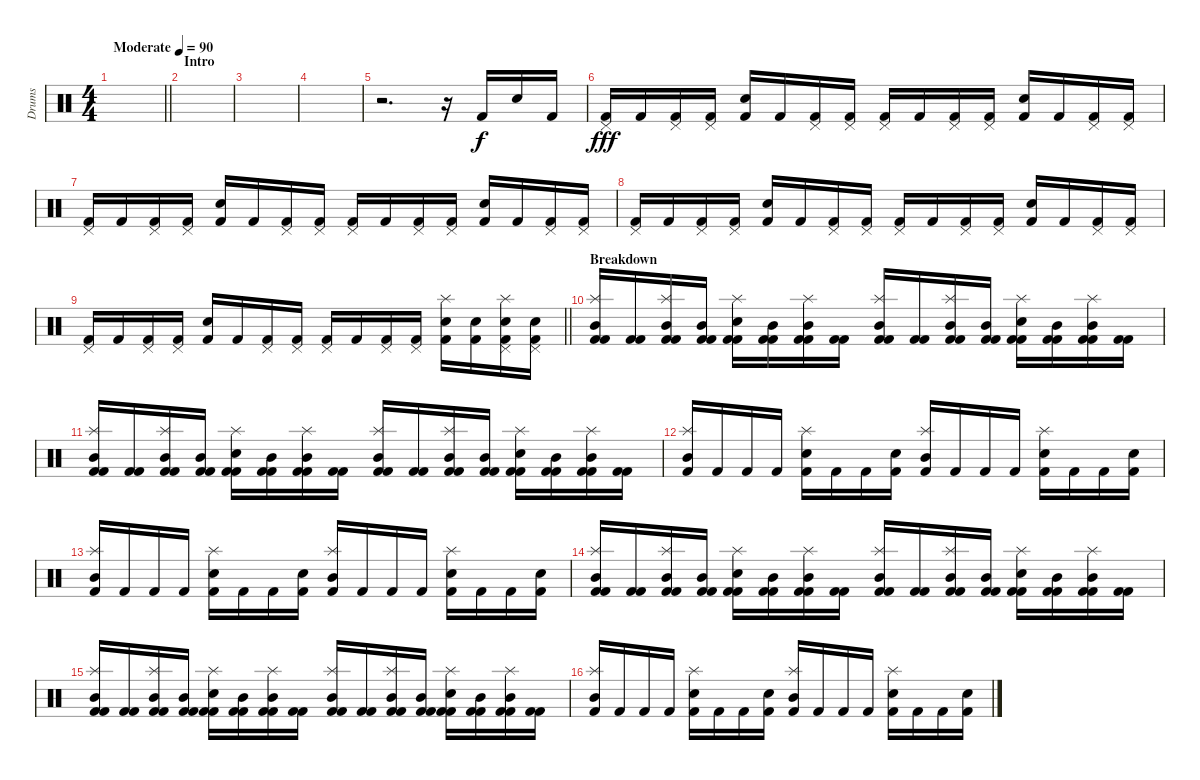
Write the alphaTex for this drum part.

\track ("Drums" "Drums") {instrument percussion}
\staff {score}
\articulation defaults
\ts (4 4)
\tempo (90 "Moderate")
\clef neutral
\barLineRight lightlight
\ks c
|
\section ("" "Intro")
|
|
|
r.2{d} r.16 "Kick (hit) 2".16 "Electric Snare (hit)".16 "Kick (hit) 2".16 |
("Pedal Hi-Hat (hit)" "Kick (hit) 2").16{dy fff} "Kick (hit) 2".16 ("Pedal Hi-Hat (hit)" "Kick (hit) 2").16 ("Pedal Hi-Hat (hit)" "Kick (hit) 2").16 ("Electric Snare (hit)" "Kick (hit) 2").16 "Kick (hit) 2".16 ("Pedal Hi-Hat (hit)" "Kick (hit) 2").16 ("Pedal Hi-Hat (hit)" "Kick (hit) 2").16 ("Pedal Hi-Hat (hit)" "Kick (hit) 2").16 "Kick (hit) 2".16 ("Pedal Hi-Hat (hit)" "Kick (hit) 2").16 ("Pedal Hi-Hat (hit)" "Kick (hit) 2").16 ("Electric Snare (hit)" "Kick (hit) 2").16 "Kick (hit) 2".16 ("Pedal Hi-Hat (hit)" "Kick (hit) 2").16 ("Pedal Hi-Hat (hit)" "Kick (hit) 2").16 |
("Pedal Hi-Hat (hit)" "Kick (hit) 2").16 "Kick (hit) 2".16 ("Pedal Hi-Hat (hit)" "Kick (hit) 2").16 ("Pedal Hi-Hat (hit)" "Kick (hit) 2").16 ("Electric Snare (hit)" "Kick (hit) 2").16 "Kick (hit) 2".16 ("Pedal Hi-Hat (hit)" "Kick (hit) 2").16 ("Pedal Hi-Hat (hit)" "Kick (hit) 2").16 ("Pedal Hi-Hat (hit)" "Kick (hit) 2").16 "Kick (hit) 2".16 ("Pedal Hi-Hat (hit)" "Kick (hit) 2").16 ("Pedal Hi-Hat (hit)" "Kick (hit) 2").16 ("Electric Snare (hit)" "Kick (hit) 2").16 "Kick (hit) 2".16 ("Pedal Hi-Hat (hit)" "Kick (hit) 2").16 ("Pedal Hi-Hat (hit)" "Kick (hit) 2").16 |
("Pedal Hi-Hat (hit)" "Kick (hit) 2").16 "Kick (hit) 2".16 ("Pedal Hi-Hat (hit)" "Kick (hit) 2").16 ("Pedal Hi-Hat (hit)" "Kick (hit) 2").16 ("Electric Snare (hit)" "Kick (hit) 2").16 "Kick (hit) 2".16 ("Pedal Hi-Hat (hit)" "Kick (hit) 2").16 ("Pedal Hi-Hat (hit)" "Kick (hit) 2").16 ("Pedal Hi-Hat (hit)" "Kick (hit) 2").16 "Kick (hit) 2".16 ("Pedal Hi-Hat (hit)" "Kick (hit) 2").16 ("Pedal Hi-Hat (hit)" "Kick (hit) 2").16 ("Electric Snare (hit)" "Kick (hit) 2").16 "Kick (hit) 2".16 ("Pedal Hi-Hat (hit)" "Kick (hit) 2").16 ("Pedal Hi-Hat (hit)" "Kick (hit) 2").16 |
\barLineRight lightlight
("Pedal Hi-Hat (hit)" "Kick (hit) 2").16 "Kick (hit) 2".16 ("Pedal Hi-Hat (hit)" "Kick (hit) 2").16 ("Pedal Hi-Hat (hit)" "Kick (hit) 2").16 ("Electric Snare (hit)" "Kick (hit) 2").16 "Kick (hit) 2".16 ("Pedal Hi-Hat (hit)" "Kick (hit) 2").16 ("Pedal Hi-Hat (hit)" "Kick (hit) 2").16 ("Pedal Hi-Hat (hit)" "Kick (hit) 2").16 "Kick (hit) 2".16 ("Pedal Hi-Hat (hit)" "Kick (hit) 2").16 ("Pedal Hi-Hat (hit)" "Kick (hit) 2").16 ("Splash (hit)" "Electric Snare (hit)" "Kick (hit) 2").16 ("Electric Snare (hit)" "Kick (hit) 2").16 ("Splash (hit)" "Pedal Hi-Hat (hit)" "Electric Snare (hit)" "Kick (hit) 2").16 ("Pedal Hi-Hat (hit)" "Electric Snare (hit)" "Kick (hit) 2").16 |
\section ("" "Breakdown")
("Kick (hit) 2" "Splash (hit)" "Mid Tom (hit)" "Kick (hit) 2").16 ("Kick (hit) 2" "Kick (hit) 2").16 ("Kick (hit) 2" "Splash (hit)" "Mid Tom (hit)" "Kick (hit) 2").16 ("Kick (hit) 2" "Mid Tom (hit)" "Kick (hit) 2").16 ("Kick (hit) 2" "Splash (hit)" "Electric Snare (hit)" "Kick (hit) 2").16 ("Kick (hit) 2" "Mid Tom (hit)" "Kick (hit) 2").16 ("Kick (hit) 2" "Splash (hit)" "Mid Tom (hit)" "Kick (hit) 2").16 ("Kick (hit) 2" "Kick (hit) 2").16 ("Kick (hit) 2" "Splash (hit)" "Mid Tom (hit)" "Kick (hit) 2").16 ("Kick (hit) 2" "Kick (hit) 2").16 ("Kick (hit) 2" "Splash (hit)" "Mid Tom (hit)" "Kick (hit) 2").16 ("Kick (hit) 2" "Mid Tom (hit)" "Kick (hit) 2").16 ("Kick (hit) 2" "Splash (hit)" "Electric Snare (hit)" "Kick (hit) 2").16 ("Kick (hit) 2" "Mid Tom (hit)" "Kick (hit) 2").16 ("Kick (hit) 2" "Splash (hit)" "Mid Tom (hit)" "Kick (hit) 2").16 ("Kick (hit) 2" "Kick (hit) 2").16 |
("Kick (hit) 2" "Splash (hit)" "Mid Tom (hit)" "Kick (hit) 2").16 ("Kick (hit) 2" "Kick (hit) 2").16 ("Kick (hit) 2" "Splash (hit)" "Mid Tom (hit)" "Kick (hit) 2").16 ("Kick (hit) 2" "Mid Tom (hit)" "Kick (hit) 2").16 ("Kick (hit) 2" "Splash (hit)" "Electric Snare (hit)" "Kick (hit) 2").16 ("Kick (hit) 2" "Mid Tom (hit)" "Kick (hit) 2").16 ("Kick (hit) 2" "Splash (hit)" "Mid Tom (hit)" "Kick (hit) 2").16 ("Kick (hit) 2" "Kick (hit) 2").16 ("Kick (hit) 2" "Splash (hit)" "Mid Tom (hit)" "Kick (hit) 2").16 ("Kick (hit) 2" "Kick (hit) 2").16 ("Kick (hit) 2" "Splash (hit)" "Mid Tom (hit)" "Kick (hit) 2").16 ("Kick (hit) 2" "Mid Tom (hit)" "Kick (hit) 2").16 ("Kick (hit) 2" "Splash (hit)" "Electric Snare (hit)" "Kick (hit) 2").16 ("Kick (hit) 2" "Mid Tom (hit)" "Kick (hit) 2").16 ("Kick (hit) 2" "Splash (hit)" "Mid Tom (hit)" "Kick (hit) 2").16 ("Kick (hit) 2" "Kick (hit) 2").16 |
("Splash (hit)" "Mid Tom (hit)" "Kick (hit) 2").16 "Kick (hit) 2".16 "Kick (hit) 2".16 "Kick (hit) 2".16 ("Splash (hit)" "Electric Snare (hit)" "Kick (hit) 2").16 "Kick (hit) 2".16 "Kick (hit) 2".16 ("Electric Snare (hit)" "Kick (hit) 2").16 ("Splash (hit)" "Mid Tom (hit)" "Kick (hit) 2").16 "Kick (hit) 2".16 "Kick (hit) 2".16 "Kick (hit) 2".16 ("Splash (hit)" "Electric Snare (hit)" "Kick (hit) 2").16 "Kick (hit) 2".16 "Kick (hit) 2".16 ("Electric Snare (hit)" "Kick (hit) 2").16 |
("Splash (hit)" "Mid Tom (hit)" "Kick (hit) 2").16 "Kick (hit) 2".16 "Kick (hit) 2".16 "Kick (hit) 2".16 ("Splash (hit)" "Electric Snare (hit)" "Kick (hit) 2").16 "Kick (hit) 2".16 "Kick (hit) 2".16 ("Electric Snare (hit)" "Kick (hit) 2").16 ("Splash (hit)" "Mid Tom (hit)" "Kick (hit) 2").16 "Kick (hit) 2".16 "Kick (hit) 2".16 "Kick (hit) 2".16 ("Splash (hit)" "Electric Snare (hit)" "Kick (hit) 2").16 "Kick (hit) 2".16 "Kick (hit) 2".16 ("Electric Snare (hit)" "Kick (hit) 2").16 |
("Kick (hit) 2" "Splash (hit)" "Mid Tom (hit)" "Kick (hit) 2").16 ("Kick (hit) 2" "Kick (hit) 2").16 ("Kick (hit) 2" "Splash (hit)" "Mid Tom (hit)" "Kick (hit) 2").16 ("Kick (hit) 2" "Mid Tom (hit)" "Kick (hit) 2").16 ("Kick (hit) 2" "Splash (hit)" "Electric Snare (hit)" "Kick (hit) 2").16 ("Kick (hit) 2" "Mid Tom (hit)" "Kick (hit) 2").16 ("Kick (hit) 2" "Splash (hit)" "Mid Tom (hit)" "Kick (hit) 2").16 ("Kick (hit) 2" "Kick (hit) 2").16 ("Kick (hit) 2" "Splash (hit)" "Mid Tom (hit)" "Kick (hit) 2").16 ("Kick (hit) 2" "Kick (hit) 2").16 ("Kick (hit) 2" "Splash (hit)" "Mid Tom (hit)" "Kick (hit) 2").16 ("Kick (hit) 2" "Mid Tom (hit)" "Kick (hit) 2").16 ("Kick (hit) 2" "Splash (hit)" "Electric Snare (hit)" "Kick (hit) 2").16 ("Kick (hit) 2" "Mid Tom (hit)" "Kick (hit) 2").16 ("Kick (hit) 2" "Splash (hit)" "Mid Tom (hit)" "Kick (hit) 2").16 ("Kick (hit) 2" "Kick (hit) 2").16 |
("Kick (hit) 2" "Splash (hit)" "Mid Tom (hit)" "Kick (hit) 2").16 ("Kick (hit) 2" "Kick (hit) 2").16 ("Kick (hit) 2" "Splash (hit)" "Mid Tom (hit)" "Kick (hit) 2").16 ("Kick (hit) 2" "Mid Tom (hit)" "Kick (hit) 2").16 ("Kick (hit) 2" "Splash (hit)" "Electric Snare (hit)" "Kick (hit) 2").16 ("Kick (hit) 2" "Mid Tom (hit)" "Kick (hit) 2").16 ("Kick (hit) 2" "Splash (hit)" "Mid Tom (hit)" "Kick (hit) 2").16 ("Kick (hit) 2" "Kick (hit) 2").16 ("Kick (hit) 2" "Splash (hit)" "Mid Tom (hit)" "Kick (hit) 2").16 ("Kick (hit) 2" "Kick (hit) 2").16 ("Kick (hit) 2" "Splash (hit)" "Mid Tom (hit)" "Kick (hit) 2").16 ("Kick (hit) 2" "Mid Tom (hit)" "Kick (hit) 2").16 ("Kick (hit) 2" "Splash (hit)" "Electric Snare (hit)" "Kick (hit) 2").16 ("Kick (hit) 2" "Mid Tom (hit)" "Kick (hit) 2").16 ("Kick (hit) 2" "Splash (hit)" "Mid Tom (hit)" "Kick (hit) 2").16 ("Kick (hit) 2" "Kick (hit) 2").16 |
("Splash (hit)" "Mid Tom (hit)" "Kick (hit) 2").16 "Kick (hit) 2".16 "Kick (hit) 2".16 "Kick (hit) 2".16 ("Splash (hit)" "Electric Snare (hit)" "Kick (hit) 2").16 "Kick (hit) 2".16 "Kick (hit) 2".16 ("Electric Snare (hit)" "Kick (hit) 2").16 ("Splash (hit)" "Mid Tom (hit)" "Kick (hit) 2").16 "Kick (hit) 2".16 "Kick (hit) 2".16 "Kick (hit) 2".16 ("Splash (hit)" "Electric Snare (hit)" "Kick (hit) 2").16 "Kick (hit) 2".16 "Kick (hit) 2".16 ("Electric Snare (hit)" "Kick (hit) 2").16
